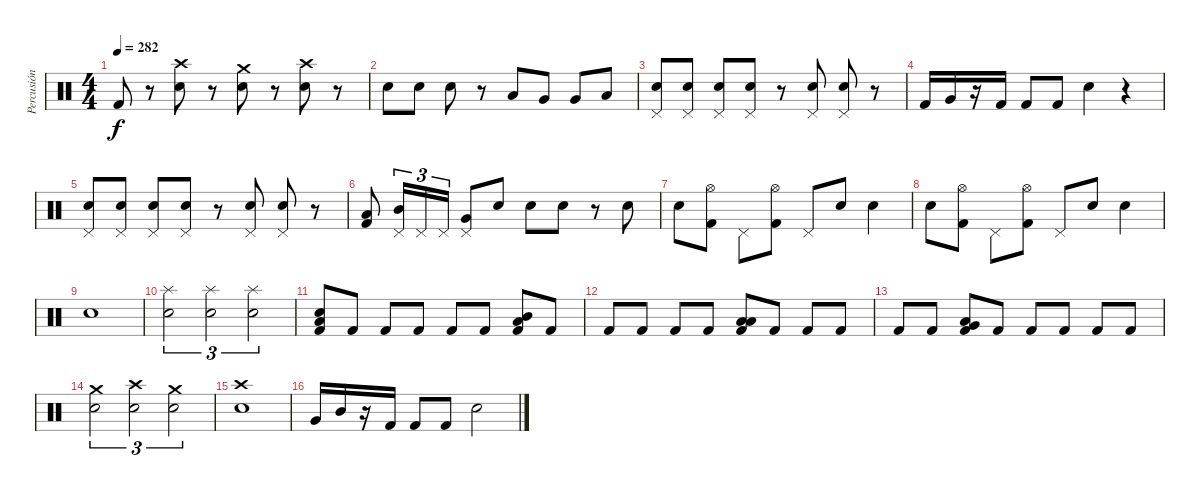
\track ("Percusión" "Percusión") {instrument percussion}
\staff {score}
\articulation defaults
\ts (4 4)
\tempo 282
\clef neutral
\ks c "Kick (hit) 2".8{dy f}
r.8 ("Snare (hit) 2" "Crash high (hit)").8 r.8 ("Snare (hit) 2" "Crash medium (hit)").8 r.8 ("Snare (hit) 2" "Crash high (hit)").8 r.8 |
"Snare (hit) 2".8 "Snare (hit) 2".8 "Snare (hit) 2".8 r.8 "Low Tom (hit)".8 "Very Low Tom (hit)".8 "Very Low Tom (hit)".8 "Low Floor Tom (hit)".8 |
("Snare (hit) 2" "Pedal Hi-Hat (hit)").8 ("Snare (hit) 2" "Pedal Hi-Hat (hit)").8 ("Snare (hit) 2" "Pedal Hi-Hat (hit)").8 ("Snare (hit) 2" "Pedal Hi-Hat (hit)").8 r.8 ("Snare (hit) 2" "Pedal Hi-Hat (hit)").8 ("Snare (hit) 2" "Pedal Hi-Hat (hit)").8 r.8 |
"Kick (hit) 2".16 "Very Low Tom (hit)".16 r.16 "Kick (hit) 2".16 "Kick (hit) 2".8 "Kick (hit) 2".8 "Snare (hit) 2".4 r.4 |
("Snare (hit) 2" "Pedal Hi-Hat (hit)").8 ("Snare (hit) 2" "Pedal Hi-Hat (hit)").8 ("Snare (hit) 2" "Pedal Hi-Hat (hit)").8 ("Snare (hit) 2" "Pedal Hi-Hat (hit)").8 r.8 ("Snare (hit) 2" "Pedal Hi-Hat (hit)").8 ("Snare (hit) 2" "Pedal Hi-Hat (hit)").8 r.8 |
("Kick (hit) 2" "Low Tom (hit)").8 ("Pedal Hi-Hat (hit)" "Mid Tom (hit)").16{tu (3 2)} "Pedal Hi-Hat (hit)".16{tu (3 2)} "Pedal Hi-Hat (hit)".16{tu (3 2)} ("Pedal Hi-Hat (hit)" "Very Low Tom (hit)").8 "Snare (hit) 2".8 "Snare (hit) 2".8 "Snare (hit) 2".8 r.8 "Snare (hit) 2".8 |
"Snare (hit) 2".8 ("Kick (hit) 2" "Hi-Hat (open)").8 "Pedal Hi-Hat (hit)".8 ("Kick (hit) 2" "Hi-Hat (open)").8 "Pedal Hi-Hat (hit)".8 "Snare (hit) 2".8 "Snare (hit) 2".4 |
"Snare (hit) 2".8 ("Kick (hit) 2" "Hi-Hat (open)").8 "Pedal Hi-Hat (hit)".8 ("Kick (hit) 2" "Hi-Hat (open)").8 "Pedal Hi-Hat (hit)".8 "Snare (hit) 2".8 "Snare (hit) 2".4 |
"Snare (hit) 2".1 |
("Snare (hit) 2" "Splash (hit)").2{tu (3 2)} ("Snare (hit) 2" "Splash (hit)").2{tu (3 2)} ("Snare (hit) 2" "Splash (hit)").2{tu (3 2)} |
("Kick (hit) 2" "Snare (hit) 2" "Low Floor Tom (hit)").8 "Kick (hit) 2".8 "Kick (hit) 2".8 "Kick (hit) 2".8 "Kick (hit) 2".8 "Kick (hit) 2".8 ("Kick (hit) 2" "Mid Tom (hit)" "Low Floor Tom (hit)").8 "Kick (hit) 2".8 |
"Kick (hit) 2".8 "Kick (hit) 2".8 "Kick (hit) 2".8 "Kick (hit) 2".8 ("Kick (hit) 2" "Low Tom (hit)" "Low Floor Tom (hit)").8 "Kick (hit) 2".8 "Kick (hit) 2".8 "Kick (hit) 2".8 |
"Kick (hit) 2".8 "Kick (hit) 2".8 ("Kick (hit) 2" "Very Low Tom (hit)" "Low Floor Tom (hit)").8 "Kick (hit) 2".8 "Kick (hit) 2".8 "Kick (hit) 2".8 "Kick (hit) 2".8 "Kick (hit) 2".8 |
("Snare (hit) 2" "Crash medium (hit)").2{tu (3 2)} ("Snare (hit) 2" "Crash high (hit)").2{tu (3 2)} ("Snare (hit) 2" "Crash medium (hit)").2{tu (3 2)} |
("Snare (hit) 2" "Crash high (hit)").1 |
"Very Low Tom (hit)".16 "Mid Tom (hit)".16 r.16 "Kick (hit) 2".16 "Kick (hit) 2".8 "Kick (hit) 2".8 "Snare (hit) 2".2
